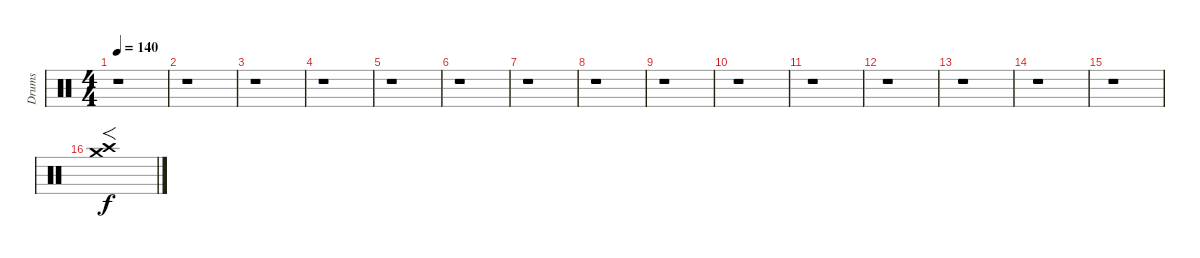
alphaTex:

\track ("Drums" "Drums") {instrument percussion}
\staff {score}
\articulation defaults
\ts (4 4)
\tempo 140
\clef neutral
\ks c
r.1{dy f} |
r.1 |
r.1 |
r.1 |
r.1 |
r.1 |
r.1 |
r.1 |
r.1 |
r.1 |
r.1 |
r.1 |
r.1 |
r.1 |
r.1 |
("Crash medium (hit)" "Crash high (hit)").1{f}
